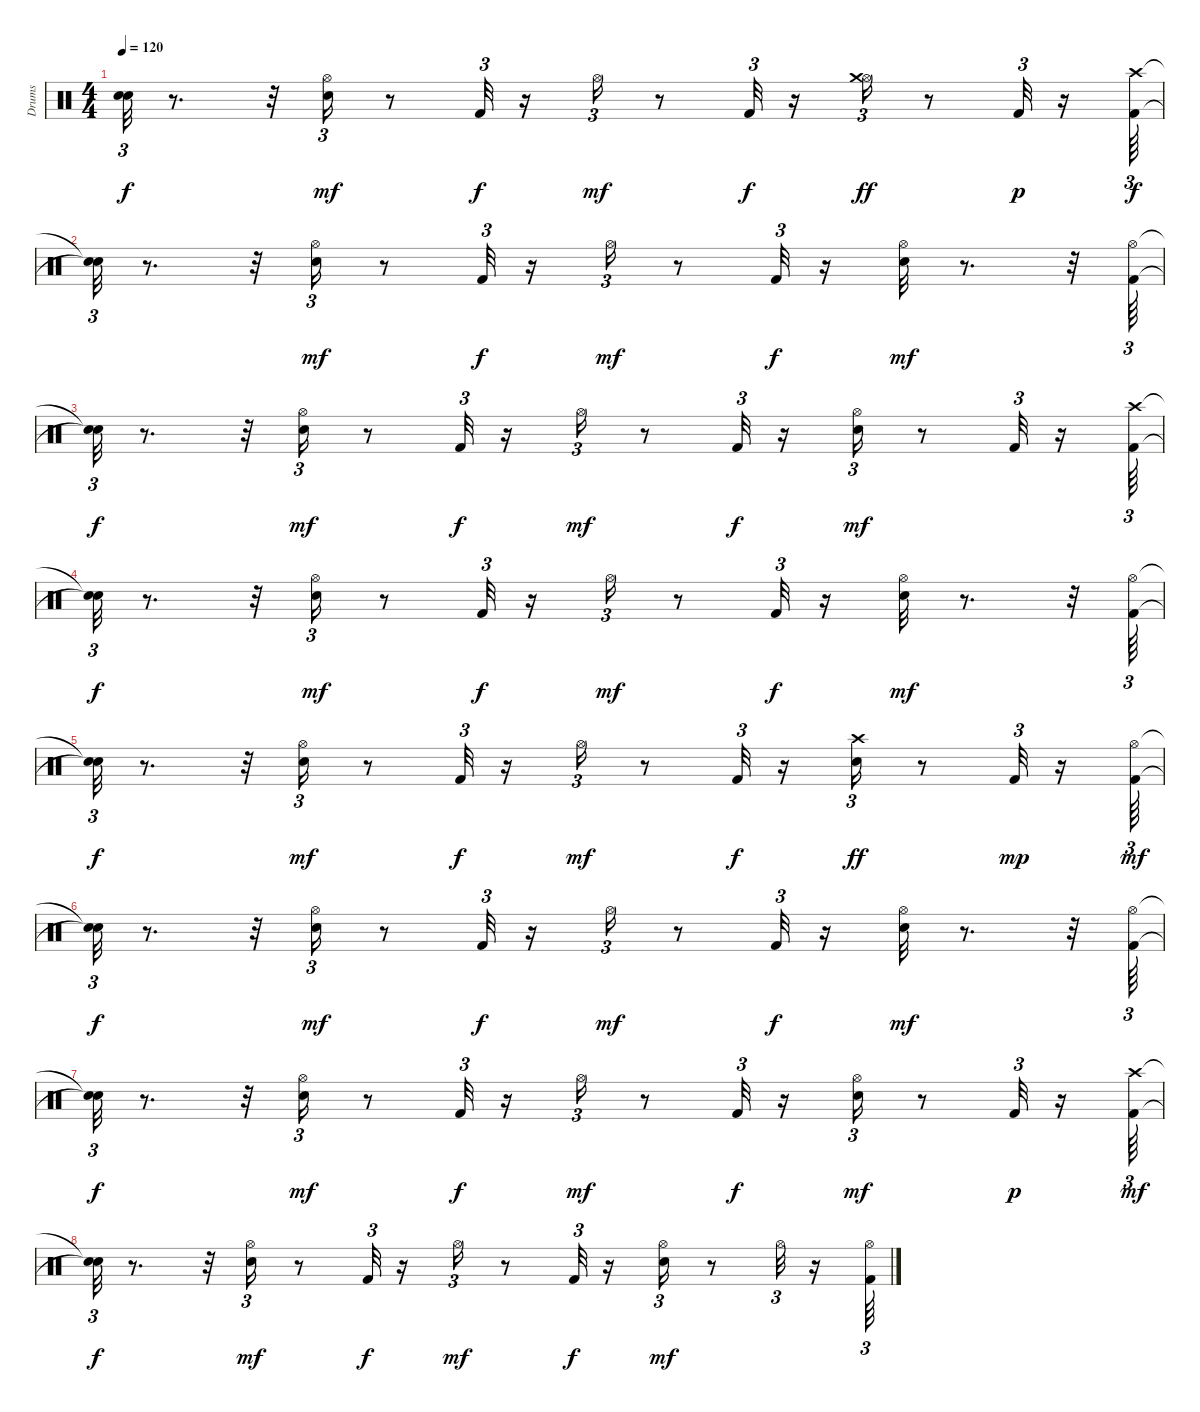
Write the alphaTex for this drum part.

\track ("Drums" "Drums") {instrument percussion}
\staff {score}
\articulation defaults
\ts (4 4)
\tempo 120
\clef neutral
\ks c
("Snare (hit)"{t} "Snare (hit)"{t}).32{tu (3 2) dy f} r.8{d} r.32 ("Electric Snare (hit)" "Hi-Hat (open)").16{tu (3 2) dy mf} r.8 "Kick (hit) 2".32{tu (3 2) dy f} r.16 "Hi-Hat (open)".16{tu (3 2) dy mf} r.8 "Kick (hit) 2".32{tu (3 2) dy f} r.16 ("Hi-Hat (open)" "Crash medium (hit)").16{tu (3 2) dy ff} r.8 "Kick (hit) 2".32{tu (3 2) dy p} r.16 ("Kick (hit) 2" "Crash high (hit)").64{tu (3 2) dy f} |
("Snare (hit)"{t} "Snare (hit)"{t}).32{tu (3 2)} r.8{d} r.32 ("Electric Snare (hit)" "Hi-Hat (open)").16{tu (3 2) dy mf} r.8 "Kick (hit) 2".32{tu (3 2) dy f} r.16 "Hi-Hat (open)".16{tu (3 2) dy mf} r.8 "Kick (hit) 2".32{tu (3 2) dy f} r.16 ("Electric Snare (hit)" "Hi-Hat (open)").32{dy mf} r.8{d} r.32 ("Kick (hit) 2" "Hi-Hat (open)").64{tu (3 2)} |
("Snare (hit)"{t} "Snare (hit)"{t}).32{tu (3 2) dy f} r.8{d} r.32 ("Electric Snare (hit)" "Hi-Hat (open)").16{tu (3 2) dy mf} r.8 "Kick (hit) 2".32{tu (3 2) dy f} r.16 "Hi-Hat (open)".16{tu (3 2) dy mf} r.8 "Kick (hit) 2".32{tu (3 2) dy f} r.16 ("Electric Snare (hit)" "Hi-Hat (open)").16{tu (3 2) dy mf} r.8 "Kick (hit) 2".32{tu (3 2)} r.16 ("Kick (hit) 2" "Crash high (hit)").64{tu (3 2)} |
("Snare (hit)"{t} "Snare (hit)"{t}).32{tu (3 2) dy f} r.8{d} r.32 ("Electric Snare (hit)" "Hi-Hat (open)").16{tu (3 2) dy mf} r.8 "Kick (hit) 2".32{tu (3 2) dy f} r.16 "Hi-Hat (open)".16{tu (3 2) dy mf} r.8 "Kick (hit) 2".32{tu (3 2) dy f} r.16 ("Electric Snare (hit)" "Hi-Hat (open)").32{dy mf} r.8{d} r.32 ("Kick (hit) 2" "Hi-Hat (open)").64{tu (3 2)} |
("Snare (hit)"{t} "Snare (hit)"{t}).32{tu (3 2) dy f} r.8{d} r.32 ("Electric Snare (hit)" "Hi-Hat (open)").16{tu (3 2) dy mf} r.8 "Kick (hit) 2".32{tu (3 2) dy f} r.16 "Hi-Hat (open)".16{tu (3 2) dy mf} r.8 "Kick (hit) 2".32{tu (3 2) dy f} r.16 ("Electric Snare (hit)" "Crash high (hit)").16{tu (3 2) dy ff} r.8 "Kick (hit) 2".32{tu (3 2) dy mp} r.16 ("Kick (hit) 2" "Hi-Hat (open)").64{tu (3 2) dy mf} |
("Snare (hit)"{t} "Snare (hit)"{t}).32{tu (3 2) dy f} r.8{d} r.32 ("Electric Snare (hit)" "Hi-Hat (open)").16{tu (3 2) dy mf} r.8 "Kick (hit) 2".32{tu (3 2) dy f} r.16 "Hi-Hat (open)".16{tu (3 2) dy mf} r.8 "Kick (hit) 2".32{tu (3 2) dy f} r.16 ("Electric Snare (hit)" "Hi-Hat (open)").32{dy mf} r.8{d} r.32 ("Kick (hit) 2" "Hi-Hat (open)").64{tu (3 2)} |
("Snare (hit)"{t} "Snare (hit)"{t}).32{tu (3 2) dy f} r.8{d} r.32 ("Electric Snare (hit)" "Hi-Hat (open)").16{tu (3 2) dy mf} r.8 "Kick (hit) 2".32{tu (3 2) dy f} r.16 "Hi-Hat (open)".16{tu (3 2) dy mf} r.8 "Kick (hit) 2".32{tu (3 2) dy f} r.16 ("Electric Snare (hit)" "Hi-Hat (open)").16{tu (3 2) dy mf} r.8 "Kick (hit) 2".32{tu (3 2) dy p} r.16 ("Kick (hit) 2" "Crash high (hit)").64{tu (3 2) dy mf} |
("Snare (hit)"{t} "Snare (hit)"{t}).32{tu (3 2) dy f} r.8{d} r.32 ("Electric Snare (hit)" "Hi-Hat (open)").16{tu (3 2) dy mf} r.8 "Kick (hit) 2".32{tu (3 2) dy f} r.16 "Hi-Hat (open)".16{tu (3 2) dy mf} r.8 "Kick (hit) 2".32{tu (3 2) dy f} r.16 ("Electric Snare (hit)" "Hi-Hat (open)").16{tu (3 2) dy mf} r.8 "Hi-Hat (open)".32{tu (3 2)} r.16 ("Kick (hit) 2" "Hi-Hat (open)").64{tu (3 2)}
